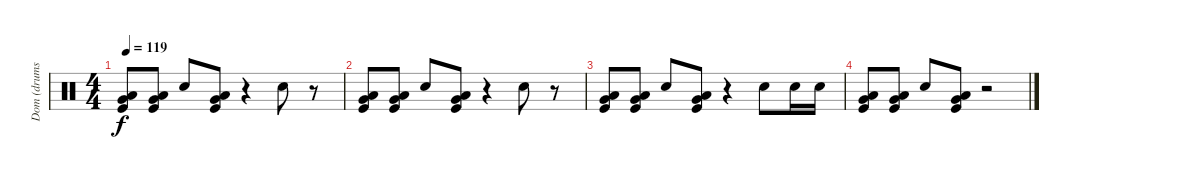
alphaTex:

\track ("Dom (drums)" "Dom (drums") {instrument percussion}
\staff {score}
\articulation defaults
\ts (4 4)
\tempo 119
\clef neutral
\ks c
("Low Tom (hit)" "Very Low Tom (hit)" "Kick (hit)").8{dy f} ("Low Tom (hit)" "Very Low Tom (hit)" "Kick (hit)").8 "Snare (hit) 2".8 ("Low Tom (hit)" "Very Low Tom (hit)" "Kick (hit)").8 r.4 "Snare (hit) 2".8 r.8 |
("Low Tom (hit)" "Very Low Tom (hit)" "Kick (hit)").8 ("Low Tom (hit)" "Very Low Tom (hit)" "Kick (hit)").8 "Snare (hit) 2".8 ("Low Tom (hit)" "Very Low Tom (hit)" "Kick (hit)").8 r.4 "Snare (hit) 2".8 r.8 |
("Low Tom (hit)" "Very Low Tom (hit)" "Kick (hit)").8 ("Low Tom (hit)" "Very Low Tom (hit)" "Kick (hit)").8 "Snare (hit) 2".8 ("Low Tom (hit)" "Very Low Tom (hit)" "Kick (hit)").8 r.4 "Snare (hit) 2".8 "Snare (hit) 2".16 "Snare (hit) 2".16 |
("Low Tom (hit)" "Very Low Tom (hit)" "Kick (hit)").8 ("Low Tom (hit)" "Very Low Tom (hit)" "Kick (hit)").8 "Snare (hit) 2".8 ("Low Tom (hit)" "Very Low Tom (hit)" "Kick (hit)").8 r.2
